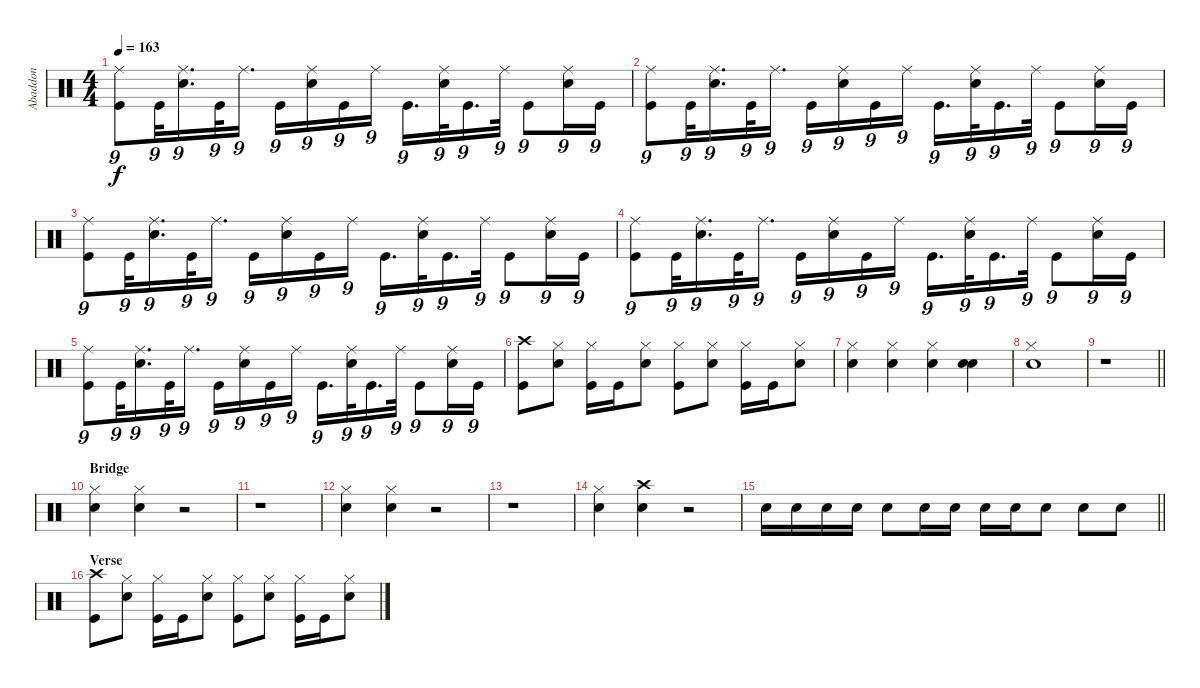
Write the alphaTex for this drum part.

\track ("Abaddon" "Abaddon") {instrument percussion}
\staff {score}
\articulation defaults
\ts (4 4)
\tempo 163
\clef neutral
\ks c
("Ride (middle)" "Kick (hit)").8{tu (9 8) dy f} "Kick (hit)".32{tu (9 8)} ("Ride (middle)" "Snare (hit) 2").16{d tu (9 8)} "Kick (hit)".32{tu (9 8)} "Ride (middle)".16{d tu (9 8)} "Kick (hit)".16{tu (9 8)} ("Ride (middle)" "Snare (hit) 2").16{tu (9 8)} "Kick (hit)".16{tu (9 8)} "Ride (middle)".16{tu (9 8)} "Kick (hit)".16{d tu (9 8)} ("Ride (middle)" "Snare (hit) 2").32{tu (9 8)} "Kick (hit)".16{d tu (9 8)} "Ride (middle)".32{tu (9 8)} "Kick (hit)".8{tu (9 8)} ("Ride (middle)" "Snare (hit) 2").16{tu (9 8)} "Kick (hit)".16{tu (9 8)} |
("Ride (middle)" "Kick (hit)").8{tu (9 8)} "Kick (hit)".32{tu (9 8)} ("Ride (middle)" "Snare (hit) 2").16{d tu (9 8)} "Kick (hit)".32{tu (9 8)} "Ride (middle)".16{d tu (9 8)} "Kick (hit)".16{tu (9 8)} ("Ride (middle)" "Snare (hit) 2").16{tu (9 8)} "Kick (hit)".16{tu (9 8)} "Ride (middle)".16{tu (9 8)} "Kick (hit)".16{d tu (9 8)} ("Ride (middle)" "Snare (hit) 2").32{tu (9 8)} "Kick (hit)".16{d tu (9 8)} "Ride (middle)".32{tu (9 8)} "Kick (hit)".8{tu (9 8)} ("Ride (middle)" "Snare (hit) 2").16{tu (9 8)} "Kick (hit)".16{tu (9 8)} |
("Ride (middle)" "Kick (hit)").8{tu (9 8)} "Kick (hit)".32{tu (9 8)} ("Ride (middle)" "Snare (hit) 2").16{d tu (9 8)} "Kick (hit)".32{tu (9 8)} "Ride (middle)".16{d tu (9 8)} "Kick (hit)".16{tu (9 8)} ("Ride (middle)" "Snare (hit) 2").16{tu (9 8)} "Kick (hit)".16{tu (9 8)} "Ride (middle)".16{tu (9 8)} "Kick (hit)".16{d tu (9 8)} ("Ride (middle)" "Snare (hit) 2").32{tu (9 8)} "Kick (hit)".16{d tu (9 8)} "Ride (middle)".32{tu (9 8)} "Kick (hit)".8{tu (9 8)} ("Ride (middle)" "Snare (hit) 2").16{tu (9 8)} "Kick (hit)".16{tu (9 8)} |
("Ride (middle)" "Kick (hit)").8{tu (9 8)} "Kick (hit)".32{tu (9 8)} ("Ride (middle)" "Snare (hit) 2").16{d tu (9 8)} "Kick (hit)".32{tu (9 8)} "Ride (middle)".16{d tu (9 8)} "Kick (hit)".16{tu (9 8)} ("Ride (middle)" "Snare (hit) 2").16{tu (9 8)} "Kick (hit)".16{tu (9 8)} "Ride (middle)".16{tu (9 8)} "Kick (hit)".16{d tu (9 8)} ("Ride (middle)" "Snare (hit) 2").32{tu (9 8)} "Kick (hit)".16{d tu (9 8)} "Ride (middle)".32{tu (9 8)} "Kick (hit)".8{tu (9 8)} ("Ride (middle)" "Snare (hit) 2").16{tu (9 8)} "Kick (hit)".16{tu (9 8)} |
("Ride (middle)" "Kick (hit)").8{tu (9 8)} "Kick (hit)".32{tu (9 8)} ("Ride (middle)" "Snare (hit) 2").16{d tu (9 8)} "Kick (hit)".32{tu (9 8)} "Ride (middle)".16{d tu (9 8)} "Kick (hit)".16{tu (9 8)} ("Ride (middle)" "Snare (hit) 2").16{tu (9 8)} "Kick (hit)".16{tu (9 8)} "Ride (middle)".16{tu (9 8)} "Kick (hit)".16{d tu (9 8)} ("Ride (middle)" "Snare (hit) 2").32{tu (9 8)} "Kick (hit)".16{d tu (9 8)} "Ride (middle)".32{tu (9 8)} "Kick (hit)".8{tu (9 8)} ("Ride (middle)" "Snare (hit) 2").16{tu (9 8)} "Kick (hit)".16{tu (9 8)} |
("Crash high (hit)" "Kick (hit)").8 ("Hi-Hat (closed)" "Snare (hit) 2").8 ("Hi-Hat (closed)" "Kick (hit)").16 "Kick (hit)".16 ("Hi-Hat (closed)" "Snare (hit) 2").8 ("Hi-Hat (closed)" "Kick (hit)").8 ("Hi-Hat (closed)" "Snare (hit) 2").8 ("Hi-Hat (closed)" "Kick (hit)").16 "Kick (hit)".16 ("Hi-Hat (closed)" "Snare (hit) 2").8 |
("Hi-Hat (closed)" "Snare (hit) 2").4 ("Hi-Hat (closed)" "Snare (hit) 2").4 ("Hi-Hat (closed)" "Snare (hit) 2").4 ("Snare (hit) 2" "Snare (hit) 2").4 |
("Hi-Hat (closed)" "Snare (hit) 2").1 |
\barLineRight lightlight
r.1 |
\section ("" "Bridge")
("Hi-Hat (closed)" "Snare (hit) 2").4 ("Hi-Hat (closed)" "Snare (hit) 2").4 r.2 |
r.1 |
("Hi-Hat (closed)" "Snare (hit) 2").4 ("Hi-Hat (closed)" "Snare (hit) 2").4 r.2 |
r.1 |
("Hi-Hat (closed)" "Snare (hit) 2").4 ("Crash high (hit)" "Snare (hit) 2").4 r.2 |
\barLineRight lightlight "Snare (hit) 2".16 "Snare (hit) 2".16 "Snare (hit) 2".16 "Snare (hit) 2".16 "Snare (hit) 2".8 "Snare (hit) 2".16 "Snare (hit) 2".16 "Snare (hit) 2".16 "Snare (hit) 2".16 "Snare (hit) 2".8 "Snare (hit) 2".8 "Snare (hit) 2".8
|
\section ("" "Verse")
("Crash high (hit)" "Kick (hit)").8 ("Hi-Hat (closed)" "Snare (hit) 2").8 ("Hi-Hat (closed)" "Kick (hit)").16 "Kick (hit)".16 ("Hi-Hat (closed)" "Snare (hit) 2").8 ("Hi-Hat (closed)" "Kick (hit)").8 ("Hi-Hat (closed)" "Snare (hit) 2").8 ("Hi-Hat (closed)" "Kick (hit)").16 "Kick (hit)".16 ("Hi-Hat (closed)" "Snare (hit) 2").8
